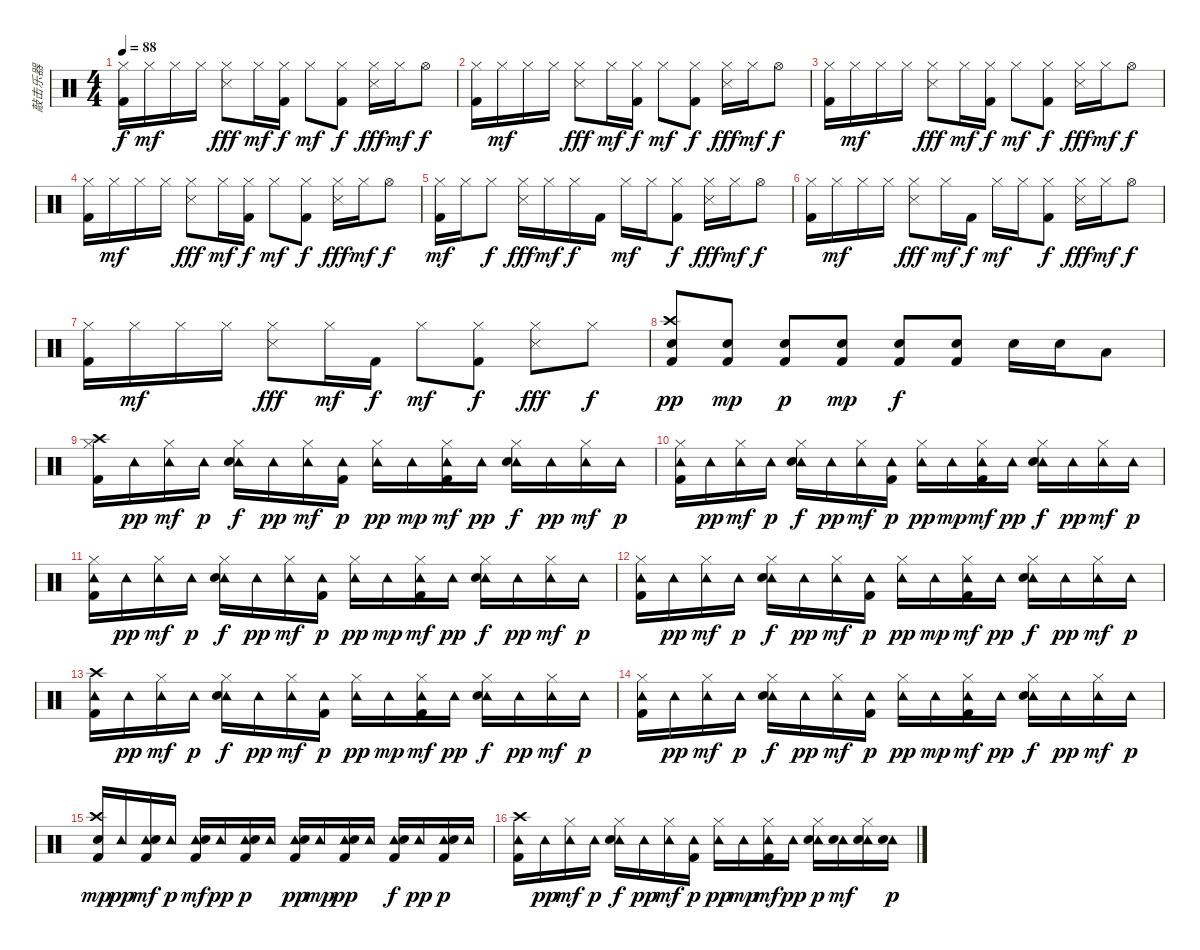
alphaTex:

\track ("敲击乐器" "敲击乐器") {instrument percussion}
\staff {score}
\articulation defaults
\ts (4 4)
\tempo 88
\clef neutral
\ks c
("Hi-Hat (closed)" "Kick (hit) 2").16{dy f} "Hi-Hat (closed)".16{dy mf} "Hi-Hat (closed)".16 "Hi-Hat (closed)".16 ("Hi-Hat (closed)" "Snare (side stick) 3").8{dy fff} "Hi-Hat (closed)".16{dy mf} ("Hi-Hat (closed)" "Kick (hit) 2").16{dy f} "Hi-Hat (closed)".8{dy mf} ("Hi-Hat (closed)" "Kick (hit) 2").8{dy f} ("Hi-Hat (closed)" "Snare (side stick) 3").16{dy fff} "Hi-Hat (closed)".16{dy mf} "Hi-Hat (open)".8{dy f} |
("Hi-Hat (closed)" "Kick (hit) 2").16 "Hi-Hat (closed)".16{dy mf} "Hi-Hat (closed)".16 "Hi-Hat (closed)".16 ("Hi-Hat (closed)" "Snare (side stick) 3").8{dy fff} "Hi-Hat (closed)".16{dy mf} ("Hi-Hat (closed)" "Kick (hit) 2").16{dy f} "Hi-Hat (closed)".8{dy mf} ("Hi-Hat (closed)" "Kick (hit) 2").8{dy f} ("Hi-Hat (closed)" "Snare (side stick) 3").16{dy fff} "Hi-Hat (closed)".16{dy mf} "Hi-Hat (open)".8{dy f} |
("Hi-Hat (closed)" "Kick (hit) 2").16 "Hi-Hat (closed)".16{dy mf} "Hi-Hat (closed)".16 "Hi-Hat (closed)".16 ("Hi-Hat (closed)" "Snare (side stick) 3").8{dy fff} "Hi-Hat (closed)".16{dy mf} ("Hi-Hat (closed)" "Kick (hit) 2").16{dy f} "Hi-Hat (closed)".8{dy mf} ("Hi-Hat (closed)" "Kick (hit) 2").8{dy f} ("Hi-Hat (closed)" "Snare (side stick) 3").16{dy fff} "Hi-Hat (closed)".16{dy mf} "Hi-Hat (open)".8{dy f} |
("Hi-Hat (closed)" "Kick (hit) 2").16 "Hi-Hat (closed)".16{dy mf} "Hi-Hat (closed)".16 "Hi-Hat (closed)".16 ("Hi-Hat (closed)" "Snare (side stick) 3").8{dy fff} "Hi-Hat (closed)".16{dy mf} ("Hi-Hat (closed)" "Kick (hit) 2").16{dy f} "Hi-Hat (closed)".8{dy mf} ("Hi-Hat (closed)" "Kick (hit) 2").8{dy f} ("Hi-Hat (closed)" "Snare (side stick) 3").16{dy fff} "Hi-Hat (closed)".16{dy mf} "Hi-Hat (open)".8{dy f} |
("Hi-Hat (closed)" "Kick (hit) 2").16{dy mf} "Hi-Hat (closed)".16 "Hi-Hat (closed)".8{dy f} ("Hi-Hat (closed)" "Snare (side stick) 3").16{dy fff} "Hi-Hat (closed)".16{dy mf} "Hi-Hat (closed)".16{dy f} "Kick (hit) 2".16 "Hi-Hat (closed)".16{dy mf} "Hi-Hat (closed)".16 ("Hi-Hat (closed)" "Kick (hit) 2").8{dy f} ("Hi-Hat (closed)" "Snare (side stick) 3").16{dy fff} "Hi-Hat (closed)".16{dy mf} "Hi-Hat (open)".8{dy f} |
("Hi-Hat (closed)" "Kick (hit) 2").16 "Hi-Hat (closed)".16{dy mf} "Hi-Hat (closed)".16 "Hi-Hat (closed)".16 ("Hi-Hat (closed)" "Snare (side stick) 3").8{dy fff} "Hi-Hat (closed)".16{dy mf} "Kick (hit) 2".16{dy f} "Hi-Hat (closed)".16{dy mf} "Hi-Hat (closed)".16 ("Hi-Hat (closed)" "Kick (hit) 2").8{dy f} ("Hi-Hat (closed)" "Snare (side stick) 3").16{dy fff} "Hi-Hat (closed)".16{dy mf} "Hi-Hat (open)".8{dy f} |
("Hi-Hat (closed)" "Kick (hit) 2").16 "Hi-Hat (closed)".16{dy mf} "Hi-Hat (closed)".16 "Hi-Hat (closed)".16 ("Hi-Hat (closed)" "Snare (side stick) 3").8{dy fff} "Hi-Hat (closed)".16{dy mf} "Kick (hit) 2".16{dy f} "Hi-Hat (closed)".8{dy mf} ("Hi-Hat (closed)" "Kick (hit) 2").8{dy f} ("Hi-Hat (closed)" "Snare (side stick) 3").8{dy fff} "Hi-Hat (closed)".8{dy f} |
("Crash high (hit)" "Electric Snare (hit)" "Kick (hit) 2").8{dy pp} ("Electric Snare (hit)" "Kick (hit) 2").8{dy mp} ("Electric Snare (hit)" "Kick (hit) 2").8{dy p} ("Electric Snare (hit)" "Kick (hit) 2").8{dy mp} ("Electric Snare (hit)" "Kick (hit) 2").8{dy f} ("Electric Snare (hit)" "Kick (hit) 2").8 "Electric Snare (hit)".16 "Electric Snare (hit)".16 "Low Tom (hit)".8 |
("Crash high (hit)" "Kick (hit) 2" "Hi-Hat (closed)").16 "Tambourine (hit)".16{dy pp} ("Tambourine (hit)" "Hi-Hat (closed)").16{dy mf} "Tambourine (hit)".16{dy p} ("Tambourine (hit)" "Electric Snare (hit)" "Hi-Hat (closed)").16{dy f} "Tambourine (hit)".16{dy pp} ("Tambourine (hit)" "Hi-Hat (closed)").16{dy mf} ("Tambourine (hit)" "Kick (hit) 2").16{dy p} ("Tambourine (hit)" "Hi-Hat (closed)").16{dy pp} "Tambourine (hit)".16{dy mp} ("Tambourine (hit)" "Kick (hit) 2" "Hi-Hat (closed)").16{dy mf} "Tambourine (hit)".16{dy pp} ("Tambourine (hit)" "Electric Snare (hit)" "Hi-Hat (closed)").16{dy f} "Tambourine (hit)".16{dy pp} ("Tambourine (hit)" "Hi-Hat (closed)").16{dy mf} "Tambourine (hit)".16{dy p} |
("Tambourine (hit)" "Kick (hit) 2" "Hi-Hat (closed)").16 "Tambourine (hit)".16{dy pp} ("Tambourine (hit)" "Hi-Hat (closed)").16{dy mf} "Tambourine (hit)".16{dy p} ("Tambourine (hit)" "Electric Snare (hit)" "Hi-Hat (closed)").16{dy f} "Tambourine (hit)".16{dy pp} ("Tambourine (hit)" "Hi-Hat (closed)").16{dy mf} ("Tambourine (hit)" "Kick (hit) 2").16{dy p} ("Tambourine (hit)" "Hi-Hat (closed)").16{dy pp} "Tambourine (hit)".16{dy mp} ("Tambourine (hit)" "Kick (hit) 2" "Hi-Hat (closed)").16{dy mf} "Tambourine (hit)".16{dy pp} ("Tambourine (hit)" "Electric Snare (hit)" "Hi-Hat (closed)").16{dy f} "Tambourine (hit)".16{dy pp} ("Tambourine (hit)" "Hi-Hat (closed)").16{dy mf} "Tambourine (hit)".16{dy p} |
("Tambourine (hit)" "Kick (hit) 2" "Hi-Hat (closed)").16 "Tambourine (hit)".16{dy pp} ("Tambourine (hit)" "Hi-Hat (closed)").16{dy mf} "Tambourine (hit)".16{dy p} ("Tambourine (hit)" "Electric Snare (hit)" "Hi-Hat (closed)").16{dy f} "Tambourine (hit)".16{dy pp} ("Tambourine (hit)" "Hi-Hat (closed)").16{dy mf} ("Tambourine (hit)" "Kick (hit) 2").16{dy p} ("Tambourine (hit)" "Hi-Hat (closed)").16{dy pp} "Tambourine (hit)".16{dy mp} ("Tambourine (hit)" "Kick (hit) 2" "Hi-Hat (closed)").16{dy mf} "Tambourine (hit)".16{dy pp} ("Tambourine (hit)" "Electric Snare (hit)" "Hi-Hat (closed)").16{dy f} "Tambourine (hit)".16{dy pp} ("Tambourine (hit)" "Hi-Hat (closed)").16{dy mf} "Tambourine (hit)".16{dy p} |
("Tambourine (hit)" "Kick (hit) 2" "Hi-Hat (closed)").16 "Tambourine (hit)".16{dy pp} ("Tambourine (hit)" "Hi-Hat (closed)").16{dy mf} "Tambourine (hit)".16{dy p} ("Tambourine (hit)" "Electric Snare (hit)" "Hi-Hat (closed)").16{dy f} "Tambourine (hit)".16{dy pp} ("Tambourine (hit)" "Hi-Hat (closed)").16{dy mf} ("Tambourine (hit)" "Kick (hit) 2").16{dy p} ("Tambourine (hit)" "Hi-Hat (closed)").16{dy pp} "Tambourine (hit)".16{dy mp} ("Tambourine (hit)" "Kick (hit) 2" "Hi-Hat (closed)").16{dy mf} "Tambourine (hit)".16{dy pp} ("Tambourine (hit)" "Electric Snare (hit)" "Hi-Hat (closed)").16{dy f} "Tambourine (hit)".16{dy pp} ("Tambourine (hit)" "Hi-Hat (closed)").16{dy mf} "Tambourine (hit)".16{dy p} |
("Tambourine (hit)" "Kick (hit) 2" "Crash high (hit)").16 "Tambourine (hit)".16{dy pp} ("Tambourine (hit)" "Hi-Hat (closed)").16{dy mf} "Tambourine (hit)".16{dy p} ("Tambourine (hit)" "Electric Snare (hit)" "Hi-Hat (closed)").16{dy f} "Tambourine (hit)".16{dy pp} ("Tambourine (hit)" "Hi-Hat (closed)").16{dy mf} ("Tambourine (hit)" "Kick (hit) 2").16{dy p} ("Tambourine (hit)" "Hi-Hat (closed)").16{dy pp} "Tambourine (hit)".16{dy mp} ("Tambourine (hit)" "Kick (hit) 2" "Hi-Hat (closed)").16{dy mf} "Tambourine (hit)".16{dy pp} ("Tambourine (hit)" "Electric Snare (hit)" "Hi-Hat (closed)").16{dy f} "Tambourine (hit)".16{dy pp} ("Tambourine (hit)" "Hi-Hat (closed)").16{dy mf} "Tambourine (hit)".16{dy p} |
("Tambourine (hit)" "Kick (hit) 2" "Hi-Hat (closed)").16 "Tambourine (hit)".16{dy pp} ("Tambourine (hit)" "Hi-Hat (closed)").16{dy mf} "Tambourine (hit)".16{dy p} ("Tambourine (hit)" "Electric Snare (hit)" "Hi-Hat (closed)").16{dy f} "Tambourine (hit)".16{dy pp} ("Tambourine (hit)" "Hi-Hat (closed)").16{dy mf} ("Tambourine (hit)" "Kick (hit) 2").16{dy p} ("Tambourine (hit)" "Hi-Hat (closed)").16{dy pp} "Tambourine (hit)".16{dy mp} ("Tambourine (hit)" "Kick (hit) 2" "Hi-Hat (closed)").16{dy mf} "Tambourine (hit)".16{dy pp} ("Tambourine (hit)" "Electric Snare (hit)" "Hi-Hat (closed)").16{dy f} "Tambourine (hit)".16{dy pp} ("Tambourine (hit)" "Hi-Hat (closed)").16{dy mf} "Tambourine (hit)".16{dy p} |
("Crash high (hit)" "Kick (hit) 2" "Electric Snare (hit)").16{dy mp} "Tambourine (hit)".16{dy pp} ("Tambourine (hit)" "Kick (hit) 2" "Electric Snare (hit)").16{dy mf} "Tambourine (hit)".16{dy p} ("Tambourine (hit)" "Kick (hit) 2" "Electric Snare (hit)").16{dy mf} "Tambourine (hit)".16{dy pp} ("Tambourine (hit)" "Kick (hit) 2" "Electric Snare (hit)").16{dy p} "Tambourine (hit)".16 ("Tambourine (hit)" "Kick (hit) 2" "Electric Snare (hit)").16{dy pp} "Tambourine (hit)".16{dy mp} ("Tambourine (hit)" "Kick (hit) 2" "Electric Snare (hit)").16{dy pp} "Tambourine (hit)".16 ("Tambourine (hit)" "Kick (hit) 2" "Electric Snare (hit)").16{dy f} "Tambourine (hit)".16{dy pp} ("Tambourine (hit)" "Kick (hit) 2" "Electric Snare (hit)").16{dy p} "Tambourine (hit)".16 |
("Tambourine (hit)" "Kick (hit) 2" "Crash high (hit)").16 "Tambourine (hit)".16{dy pp} ("Tambourine (hit)" "Hi-Hat (closed)").16{dy mf} "Tambourine (hit)".16{dy p} ("Tambourine (hit)" "Electric Snare (hit)" "Hi-Hat (closed)").16{dy f} "Tambourine (hit)".16{dy pp} ("Tambourine (hit)" "Hi-Hat (closed)").16{dy mf} ("Tambourine (hit)" "Kick (hit) 2").16{dy p} ("Tambourine (hit)" "Hi-Hat (closed)").16{dy pp} "Tambourine (hit)".16{dy mp} ("Tambourine (hit)" "Kick (hit) 2" "Hi-Hat (closed)").16{dy mf} "Tambourine (hit)".16{dy pp} ("Tambourine (hit)" "Electric Snare (hit)" "Hi-Hat (closed)").16{dy p} ("Tambourine (hit)" "Electric Snare (hit)").16{dy mf} ("Tambourine (hit)" "Electric Snare (hit)" "Hi-Hat (closed)").16 ("Tambourine (hit)" "Electric Snare (hit)").16{dy p}
